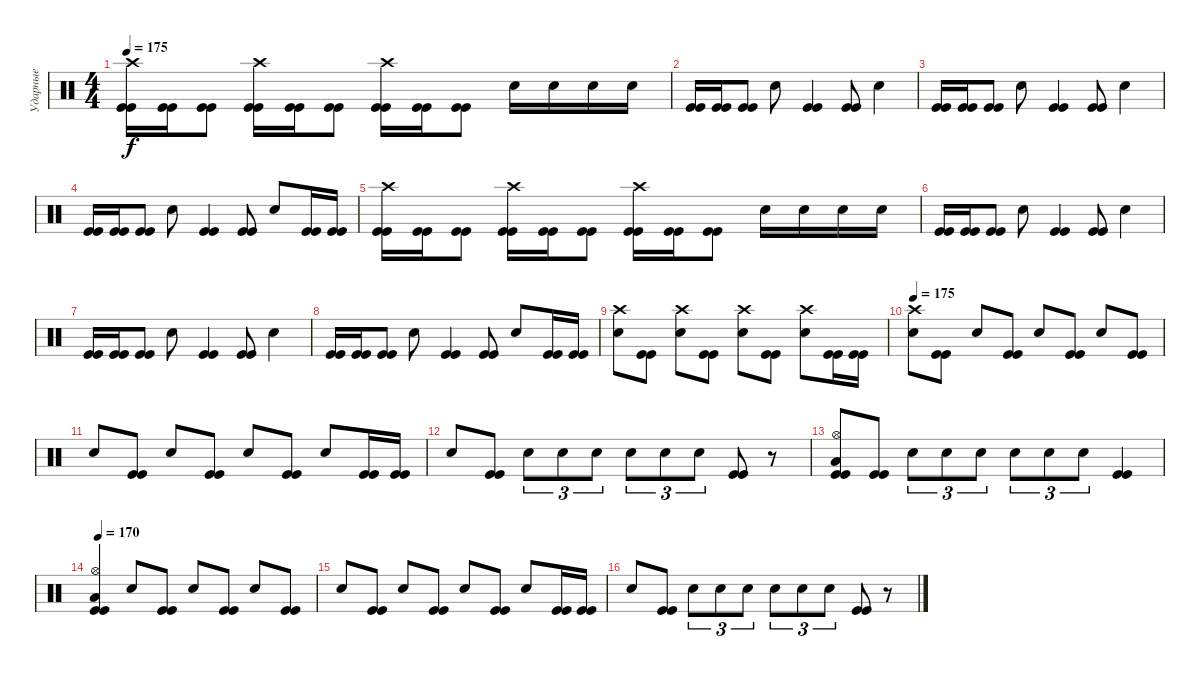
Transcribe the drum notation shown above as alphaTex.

\track ("Ударные" "Ударные") {instrument percussion}
\staff {score}
\articulation defaults
\ts (4 4)
\tempo 175
\clef neutral
\ks c
("Crash high (hit)" "Kick (hit)" "Kick (hit)").16{dy f} ("Kick (hit)" "Kick (hit)").16 ("Kick (hit)" "Kick (hit)").8 ("Crash high (hit)" "Kick (hit)" "Kick (hit)").16 ("Kick (hit)" "Kick (hit)").16 ("Kick (hit)" "Kick (hit)").8 ("Crash high (hit)" "Kick (hit)" "Kick (hit)").16 ("Kick (hit)" "Kick (hit)").16 ("Kick (hit)" "Kick (hit)").8 "Snare (hit) 2".16 "Snare (hit) 2".16 "Snare (hit) 2".16 "Snare (hit) 2".16 |
("Kick (hit)" "Kick (hit)").16 ("Kick (hit)" "Kick (hit)").16 ("Kick (hit)" "Kick (hit)").8 "Snare (hit) 2".8 ("Kick (hit)" "Kick (hit)").4 ("Kick (hit)" "Kick (hit)").8 "Snare (hit) 2".4 |
("Kick (hit)" "Kick (hit)").16 ("Kick (hit)" "Kick (hit)").16 ("Kick (hit)" "Kick (hit)").8 "Snare (hit) 2".8 ("Kick (hit)" "Kick (hit)").4 ("Kick (hit)" "Kick (hit)").8 "Snare (hit) 2".4 |
("Kick (hit)" "Kick (hit)").16 ("Kick (hit)" "Kick (hit)").16 ("Kick (hit)" "Kick (hit)").8 "Snare (hit) 2".8 ("Kick (hit)" "Kick (hit)").4 ("Kick (hit)" "Kick (hit)").8 "Snare (hit) 2".8 ("Kick (hit)" "Kick (hit)").16 ("Kick (hit)" "Kick (hit)").16 |
("Crash high (hit)" "Kick (hit)" "Kick (hit)").16 ("Kick (hit)" "Kick (hit)").16 ("Kick (hit)" "Kick (hit)").8 ("Crash high (hit)" "Kick (hit)" "Kick (hit)").16 ("Kick (hit)" "Kick (hit)").16 ("Kick (hit)" "Kick (hit)").8 ("Crash high (hit)" "Kick (hit)" "Kick (hit)").16 ("Kick (hit)" "Kick (hit)").16 ("Kick (hit)" "Kick (hit)").8 "Snare (hit) 2".16 "Snare (hit) 2".16 "Snare (hit) 2".16 "Snare (hit) 2".16 |
("Kick (hit)" "Kick (hit)").16 ("Kick (hit)" "Kick (hit)").16 ("Kick (hit)" "Kick (hit)").8 "Snare (hit) 2".8 ("Kick (hit)" "Kick (hit)").4 ("Kick (hit)" "Kick (hit)").8 "Snare (hit) 2".4 |
("Kick (hit)" "Kick (hit)").16 ("Kick (hit)" "Kick (hit)").16 ("Kick (hit)" "Kick (hit)").8 "Snare (hit) 2".8 ("Kick (hit)" "Kick (hit)").4 ("Kick (hit)" "Kick (hit)").8 "Snare (hit) 2".4 |
("Kick (hit)" "Kick (hit)").16 ("Kick (hit)" "Kick (hit)").16 ("Kick (hit)" "Kick (hit)").8 "Snare (hit) 2".8 ("Kick (hit)" "Kick (hit)").4 ("Kick (hit)" "Kick (hit)").8 "Snare (hit) 2".8 ("Kick (hit)" "Kick (hit)").16 ("Kick (hit)" "Kick (hit)").16 |
("Crash high (hit)" "Snare (hit) 2").8 ("Kick (hit)" "Kick (hit)").8 ("Crash high (hit)" "Snare (hit) 2").8 ("Kick (hit)" "Kick (hit)").8 ("Crash high (hit)" "Snare (hit) 2").8 ("Kick (hit)" "Kick (hit)").8 ("Crash high (hit)" "Snare (hit) 2").8 ("Kick (hit)" "Kick (hit)").16 ("Kick (hit)" "Kick (hit)").16 |
\tempo 175
("Crash high (hit)" "Snare (hit) 2").8 ("Kick (hit)" "Kick (hit)").8 "Snare (hit) 2".8 ("Kick (hit)" "Kick (hit)").8 "Snare (hit) 2".8 ("Kick (hit)" "Kick (hit)").8 "Snare (hit) 2".8 ("Kick (hit)" "Kick (hit)").8 |
"Snare (hit) 2".8 ("Kick (hit)" "Kick (hit)").8 "Snare (hit) 2".8 ("Kick (hit)" "Kick (hit)").8 "Snare (hit) 2".8 ("Kick (hit)" "Kick (hit)").8 "Snare (hit) 2".8 ("Kick (hit)" "Kick (hit)").16 ("Kick (hit)" "Kick (hit)").16 |
"Snare (hit) 2".8 ("Kick (hit)" "Kick (hit)").8 "Snare (hit) 2".8{tu (3 2)} "Snare (hit) 2".8{tu (3 2)} "Snare (hit) 2".8{tu (3 2)} "Snare (hit) 2".8{tu (3 2)} "Snare (hit) 2".8{tu (3 2)} "Snare (hit) 2".8{tu (3 2)} ("Kick (hit)" "Kick (hit)").8 r.8 |
("Hi-Hat (open)" "Low Floor Tom (hit)" "Kick (hit)" "Kick (hit)").8 ("Kick (hit)" "Kick (hit)").8 "Snare (hit) 2".8{tu (3 2)} "Snare (hit) 2".8{tu (3 2)} "Snare (hit) 2".8{tu (3 2)} "Snare (hit) 2".8{tu (3 2)} "Snare (hit) 2".8{tu (3 2)} "Snare (hit) 2".8{tu (3 2)} ("Kick (hit)" "Kick (hit)").4 |
\tempo 170
("Hi-Hat (open)" "Low Floor Tom (hit)" "Kick (hit)" "Kick (hit)").4 "Snare (hit) 2".8 ("Kick (hit)" "Kick (hit)").8 "Snare (hit) 2".8 ("Kick (hit)" "Kick (hit)").8 "Snare (hit) 2".8 ("Kick (hit)" "Kick (hit)").8 |
"Snare (hit) 2".8 ("Kick (hit)" "Kick (hit)").8 "Snare (hit) 2".8 ("Kick (hit)" "Kick (hit)").8 "Snare (hit) 2".8 ("Kick (hit)" "Kick (hit)").8 "Snare (hit) 2".8 ("Kick (hit)" "Kick (hit)").16 ("Kick (hit)" "Kick (hit)").16 |
"Snare (hit) 2".8 ("Kick (hit)" "Kick (hit)").8 "Snare (hit) 2".8{tu (3 2)} "Snare (hit) 2".8{tu (3 2)} "Snare (hit) 2".8{tu (3 2)} "Snare (hit) 2".8{tu (3 2)} "Snare (hit) 2".8{tu (3 2)} "Snare (hit) 2".8{tu (3 2)} ("Kick (hit)" "Kick (hit)").8 r.8
